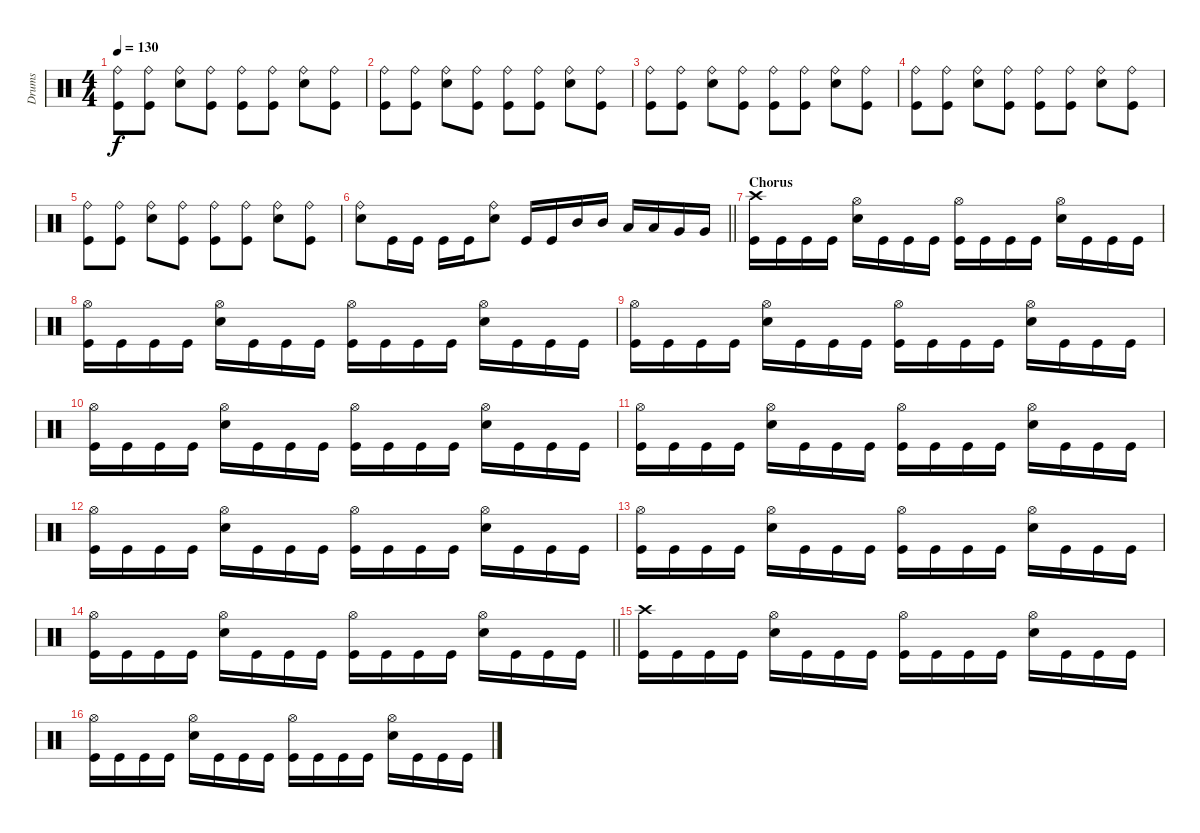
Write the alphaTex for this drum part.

\track ("Drums" "Drums") {instrument percussion}
\staff {score}
\articulation defaults
\ts (4 4)
\tempo 130
\clef neutral
\ks c
("Ride (bell)" "Kick (hit)").8{dy f} ("Ride (bell)" "Kick (hit)").8 ("Ride (bell)" "Electric Snare (hit)").8 ("Ride (bell)" "Kick (hit)").8 ("Ride (bell)" "Kick (hit)").8 ("Ride (bell)" "Kick (hit)").8 ("Ride (bell)" "Electric Snare (hit)").8 ("Ride (bell)" "Kick (hit)").8 |
("Ride (bell)" "Kick (hit)").8 ("Ride (bell)" "Kick (hit)").8 ("Ride (bell)" "Electric Snare (hit)").8 ("Ride (bell)" "Kick (hit)").8 ("Ride (bell)" "Kick (hit)").8 ("Ride (bell)" "Kick (hit)").8 ("Ride (bell)" "Electric Snare (hit)").8 ("Ride (bell)" "Kick (hit)").8 |
("Ride (bell)" "Kick (hit)").8 ("Ride (bell)" "Kick (hit)").8 ("Ride (bell)" "Electric Snare (hit)").8 ("Ride (bell)" "Kick (hit)").8 ("Ride (bell)" "Kick (hit)").8 ("Ride (bell)" "Kick (hit)").8 ("Ride (bell)" "Electric Snare (hit)").8 ("Ride (bell)" "Kick (hit)").8 |
("Ride (bell)" "Kick (hit)").8 ("Ride (bell)" "Kick (hit)").8 ("Ride (bell)" "Electric Snare (hit)").8 ("Ride (bell)" "Kick (hit)").8 ("Ride (bell)" "Kick (hit)").8 ("Ride (bell)" "Kick (hit)").8 ("Ride (bell)" "Electric Snare (hit)").8 ("Ride (bell)" "Kick (hit)").8 |
("Ride (bell)" "Kick (hit)").8 ("Ride (bell)" "Kick (hit)").8 ("Ride (bell)" "Electric Snare (hit)").8 ("Ride (bell)" "Kick (hit)").8 ("Ride (bell)" "Kick (hit)").8 ("Ride (bell)" "Kick (hit)").8 ("Ride (bell)" "Electric Snare (hit)").8 ("Ride (bell)" "Kick (hit)").8 |
\barLineRight lightlight
("Ride (bell)" "Electric Snare (hit)").8 "Kick (hit)".16 "Kick (hit)".16 "Kick (hit)".16 "Kick (hit)".16 ("Ride (bell)" "Electric Snare (hit)").8 "Kick (hit)".16 "Kick (hit)".16 "Mid Tom (hit)".16 "Mid Tom (hit)".16 "Low Tom (hit)".16 "Low Tom (hit)".16 "Very Low Tom (hit)".16 "Very Low Tom (hit)".16 |
\section ("" "Chorus ")
("Crash high (hit)" "Kick (hit)").16 "Kick (hit)".16 "Kick (hit)".16 "Kick (hit)".16 ("Hi-Hat (open)" "Electric Snare (hit)").16 "Kick (hit)".16 "Kick (hit)".16 "Kick (hit)".16 ("Hi-Hat (open)" "Kick (hit)").16 "Kick (hit)".16 "Kick (hit)".16 "Kick (hit)".16 ("Hi-Hat (open)" "Electric Snare (hit)").16 "Kick (hit)".16 "Kick (hit)".16 "Kick (hit)".16 |
("Hi-Hat (open)" "Kick (hit)").16 "Kick (hit)".16 "Kick (hit)".16 "Kick (hit)".16 ("Hi-Hat (open)" "Electric Snare (hit)").16 "Kick (hit)".16 "Kick (hit)".16 "Kick (hit)".16 ("Hi-Hat (open)" "Kick (hit)").16 "Kick (hit)".16 "Kick (hit)".16 "Kick (hit)".16 ("Hi-Hat (open)" "Electric Snare (hit)").16 "Kick (hit)".16 "Kick (hit)".16 "Kick (hit)".16 |
("Hi-Hat (open)" "Kick (hit)").16 "Kick (hit)".16 "Kick (hit)".16 "Kick (hit)".16 ("Hi-Hat (open)" "Electric Snare (hit)").16 "Kick (hit)".16 "Kick (hit)".16 "Kick (hit)".16 ("Hi-Hat (open)" "Kick (hit)").16 "Kick (hit)".16 "Kick (hit)".16 "Kick (hit)".16 ("Hi-Hat (open)" "Electric Snare (hit)").16 "Kick (hit)".16 "Kick (hit)".16 "Kick (hit)".16 |
("Hi-Hat (open)" "Kick (hit)").16 "Kick (hit)".16 "Kick (hit)".16 "Kick (hit)".16 ("Hi-Hat (open)" "Electric Snare (hit)").16 "Kick (hit)".16 "Kick (hit)".16 "Kick (hit)".16 ("Hi-Hat (open)" "Kick (hit)").16 "Kick (hit)".16 "Kick (hit)".16 "Kick (hit)".16 ("Hi-Hat (open)" "Electric Snare (hit)").16 "Kick (hit)".16 "Kick (hit)".16 "Kick (hit)".16 |
("Hi-Hat (open)" "Kick (hit)").16 "Kick (hit)".16 "Kick (hit)".16 "Kick (hit)".16 ("Hi-Hat (open)" "Electric Snare (hit)").16 "Kick (hit)".16 "Kick (hit)".16 "Kick (hit)".16 ("Hi-Hat (open)" "Kick (hit)").16 "Kick (hit)".16 "Kick (hit)".16 "Kick (hit)".16 ("Hi-Hat (open)" "Electric Snare (hit)").16 "Kick (hit)".16 "Kick (hit)".16 "Kick (hit)".16 |
("Hi-Hat (open)" "Kick (hit)").16 "Kick (hit)".16 "Kick (hit)".16 "Kick (hit)".16 ("Hi-Hat (open)" "Electric Snare (hit)").16 "Kick (hit)".16 "Kick (hit)".16 "Kick (hit)".16 ("Hi-Hat (open)" "Kick (hit)").16 "Kick (hit)".16 "Kick (hit)".16 "Kick (hit)".16 ("Hi-Hat (open)" "Electric Snare (hit)").16 "Kick (hit)".16 "Kick (hit)".16 "Kick (hit)".16 |
("Hi-Hat (open)" "Kick (hit)").16 "Kick (hit)".16 "Kick (hit)".16 "Kick (hit)".16 ("Hi-Hat (open)" "Electric Snare (hit)").16 "Kick (hit)".16 "Kick (hit)".16 "Kick (hit)".16 ("Hi-Hat (open)" "Kick (hit)").16 "Kick (hit)".16 "Kick (hit)".16 "Kick (hit)".16 ("Hi-Hat (open)" "Electric Snare (hit)").16 "Kick (hit)".16 "Kick (hit)".16 "Kick (hit)".16 |
\barLineRight lightlight
("Hi-Hat (open)" "Kick (hit)").16 "Kick (hit)".16 "Kick (hit)".16 "Kick (hit)".16 ("Hi-Hat (open)" "Electric Snare (hit)").16 "Kick (hit)".16 "Kick (hit)".16 "Kick (hit)".16 ("Hi-Hat (open)" "Kick (hit)").16 "Kick (hit)".16 "Kick (hit)".16 "Kick (hit)".16 ("Hi-Hat (open)" "Electric Snare (hit)").16 "Kick (hit)".16 "Kick (hit)".16 "Kick (hit)".16 |
("Crash high (hit)" "Kick (hit)").16 "Kick (hit)".16 "Kick (hit)".16 "Kick (hit)".16 ("Hi-Hat (open)" "Electric Snare (hit)").16 "Kick (hit)".16 "Kick (hit)".16 "Kick (hit)".16 ("Hi-Hat (open)" "Kick (hit)").16 "Kick (hit)".16 "Kick (hit)".16 "Kick (hit)".16 ("Hi-Hat (open)" "Electric Snare (hit)").16 "Kick (hit)".16 "Kick (hit)".16 "Kick (hit)".16 |
("Hi-Hat (open)" "Kick (hit)").16 "Kick (hit)".16 "Kick (hit)".16 "Kick (hit)".16 ("Hi-Hat (open)" "Electric Snare (hit)").16 "Kick (hit)".16 "Kick (hit)".16 "Kick (hit)".16 ("Hi-Hat (open)" "Kick (hit)").16 "Kick (hit)".16 "Kick (hit)".16 "Kick (hit)".16 ("Hi-Hat (open)" "Electric Snare (hit)").16 "Kick (hit)".16 "Kick (hit)".16 "Kick (hit)".16
